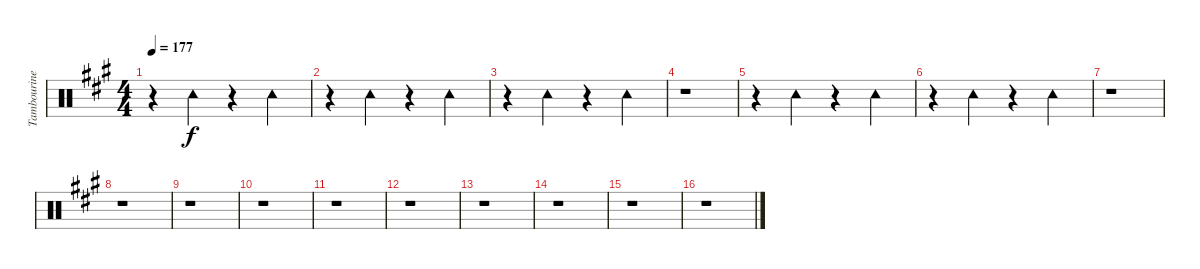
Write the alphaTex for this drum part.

\track ("Tambourine" "Tambourine") {instrument percussion}
\staff {score}
\articulation defaults
\ts (4 4)
\tempo 177
\clef neutral
\ks a
r.4{dy f} "Tambourine (hit)".4 r.4 "Tambourine (hit)".4 |
r.4 "Tambourine (hit)".4 r.4 "Tambourine (hit)".4 |
r.4 "Tambourine (hit)".4 r.4 "Tambourine (hit)".4 |
r.1 |
r.4 "Tambourine (hit)".4 r.4 "Tambourine (hit)".4 |
r.4 "Tambourine (hit)".4 r.4 "Tambourine (hit)".4 |
r.1 |
r.1 |
r.1 |
r.1 |
r.1 |
r.1 |
r.1 |
r.1 |
r.1 |
r.1
